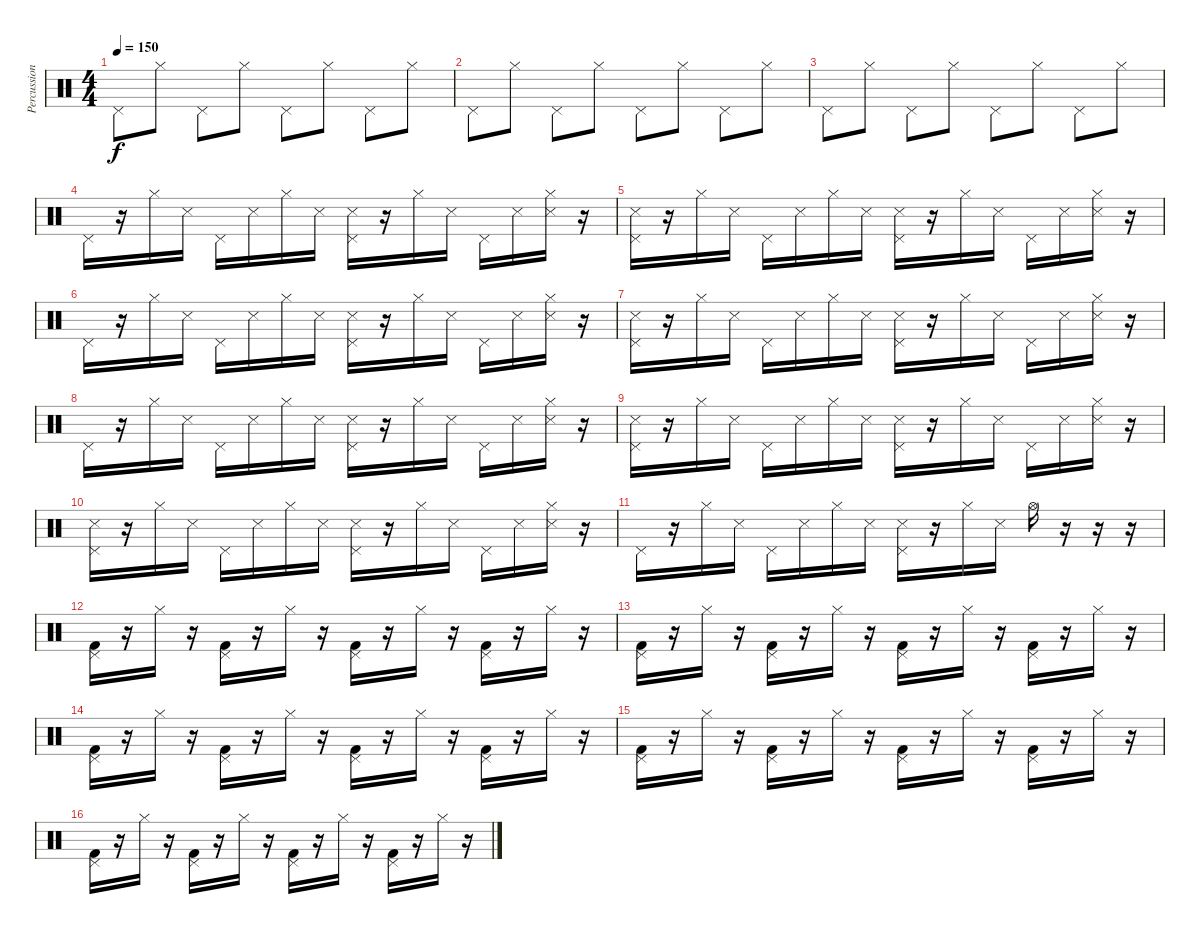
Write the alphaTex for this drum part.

\track ("Percussions" "Percussion") {instrument percussion}
\staff {score}
\articulation defaults
\ts (4 4)
\tempo 150
\clef neutral
\ks c "Pedal Hi-Hat (hit)".8{dy f} "Hi-Hat (closed)".8 "Pedal Hi-Hat (hit)".8 "Hi-Hat (closed)".8 "Pedal Hi-Hat (hit)".8 "Hi-Hat (closed)".8 "Pedal Hi-Hat (hit)".8 "Hi-Hat (closed)".8
|
"Pedal Hi-Hat (hit)".8 "Hi-Hat (closed)".8 "Pedal Hi-Hat (hit)".8 "Hi-Hat (closed)".8 "Pedal Hi-Hat (hit)".8 "Hi-Hat (closed)".8 "Pedal Hi-Hat (hit)".8 "Hi-Hat (closed)".8 |
"Pedal Hi-Hat (hit)".8 "Hi-Hat (closed)".8 "Pedal Hi-Hat (hit)".8 "Hi-Hat (closed)".8 "Pedal Hi-Hat (hit)".8 "Hi-Hat (closed)".8 "Pedal Hi-Hat (hit)".8 "Hi-Hat (closed)".8 |
"Pedal Hi-Hat (hit)".16 r.16 "Hi-Hat (closed)".16 "Snare (side stick) 3".16 "Pedal Hi-Hat (hit)".16 "Snare (side stick) 3".16 "Hi-Hat (closed)".16 "Snare (side stick) 3".16 ("Pedal Hi-Hat (hit)" "Snare (side stick) 3").16 r.16 "Hi-Hat (closed)".16 "Snare (side stick) 3".16 "Pedal Hi-Hat (hit)".16 "Snare (side stick) 3".16 ("Snare (side stick) 3" "Hi-Hat (closed)").16 r.16 |
("Pedal Hi-Hat (hit)" "Snare (side stick) 3").16 r.16 "Hi-Hat (closed)".16 "Snare (side stick) 3".16 "Pedal Hi-Hat (hit)".16 "Snare (side stick) 3".16 "Hi-Hat (closed)".16 "Snare (side stick) 3".16 ("Pedal Hi-Hat (hit)" "Snare (side stick) 3").16 r.16 "Hi-Hat (closed)".16 "Snare (side stick) 3".16 "Pedal Hi-Hat (hit)".16 "Snare (side stick) 3".16 ("Snare (side stick) 3" "Hi-Hat (closed)").16 r.16 |
"Pedal Hi-Hat (hit)".16 r.16 "Hi-Hat (closed)".16 "Snare (side stick) 3".16 "Pedal Hi-Hat (hit)".16 "Snare (side stick) 3".16 "Hi-Hat (closed)".16 "Snare (side stick) 3".16 ("Pedal Hi-Hat (hit)" "Snare (side stick) 3").16 r.16 "Hi-Hat (closed)".16 "Snare (side stick) 3".16 "Pedal Hi-Hat (hit)".16 "Snare (side stick) 3".16 ("Snare (side stick) 3" "Hi-Hat (closed)").16 r.16 |
("Pedal Hi-Hat (hit)" "Snare (side stick) 3").16 r.16 "Hi-Hat (closed)".16 "Snare (side stick) 3".16 "Pedal Hi-Hat (hit)".16 "Snare (side stick) 3".16 "Hi-Hat (closed)".16 "Snare (side stick) 3".16 ("Pedal Hi-Hat (hit)" "Snare (side stick) 3").16 r.16 "Hi-Hat (closed)".16 "Snare (side stick) 3".16 "Pedal Hi-Hat (hit)".16 "Snare (side stick) 3".16 ("Snare (side stick) 3" "Hi-Hat (closed)").16 r.16 |
"Pedal Hi-Hat (hit)".16 r.16 "Hi-Hat (closed)".16 "Snare (side stick) 3".16 "Pedal Hi-Hat (hit)".16 "Snare (side stick) 3".16 "Hi-Hat (closed)".16 "Snare (side stick) 3".16 ("Pedal Hi-Hat (hit)" "Snare (side stick) 3").16 r.16 "Hi-Hat (closed)".16 "Snare (side stick) 3".16 "Pedal Hi-Hat (hit)".16 "Snare (side stick) 3".16 ("Snare (side stick) 3" "Hi-Hat (closed)").16 r.16 |
("Pedal Hi-Hat (hit)" "Snare (side stick) 3").16 r.16 "Hi-Hat (closed)".16 "Snare (side stick) 3".16 "Pedal Hi-Hat (hit)".16 "Snare (side stick) 3".16 "Hi-Hat (closed)".16 "Snare (side stick) 3".16 ("Pedal Hi-Hat (hit)" "Snare (side stick) 3").16 r.16 "Hi-Hat (closed)".16 "Snare (side stick) 3".16 "Pedal Hi-Hat (hit)".16 "Snare (side stick) 3".16 ("Snare (side stick) 3" "Hi-Hat (closed)").16 r.16 |
("Pedal Hi-Hat (hit)" "Snare (side stick) 3").16 r.16 "Hi-Hat (closed)".16 "Snare (side stick) 3".16 "Pedal Hi-Hat (hit)".16 "Snare (side stick) 3".16 "Hi-Hat (closed)".16 "Snare (side stick) 3".16 ("Pedal Hi-Hat (hit)" "Snare (side stick) 3").16 r.16 "Hi-Hat (closed)".16 "Snare (side stick) 3".16 "Pedal Hi-Hat (hit)".16 "Snare (side stick) 3".16 ("Snare (side stick) 3" "Hi-Hat (closed)").16 r.16 |
"Pedal Hi-Hat (hit)".16 r.16 "Hi-Hat (closed)".16 "Snare (side stick) 3".16 "Pedal Hi-Hat (hit)".16 "Snare (side stick) 3".16 "Hi-Hat (closed)".16 "Snare (side stick) 3".16 ("Pedal Hi-Hat (hit)" "Snare (side stick) 3").16 r.16 "Hi-Hat (closed)".16 "Snare (side stick) 3".16 "Hi-Hat (open)".16 r.16 r.16 r.16 |
("Pedal Hi-Hat (hit)" "Kick (hit) 2").16 r.16 "Hi-Hat (closed)".16 r.16 ("Pedal Hi-Hat (hit)" "Kick (hit) 2").16 r.16 "Hi-Hat (closed)".16 r.16 ("Pedal Hi-Hat (hit)" "Kick (hit) 2").16 r.16 "Hi-Hat (closed)".16 r.16 ("Pedal Hi-Hat (hit)" "Kick (hit) 2").16 r.16 "Hi-Hat (closed)".16 r.16 |
("Pedal Hi-Hat (hit)" "Kick (hit) 2").16 r.16 "Hi-Hat (closed)".16 r.16 ("Pedal Hi-Hat (hit)" "Kick (hit) 2").16 r.16 "Hi-Hat (closed)".16 r.16 ("Pedal Hi-Hat (hit)" "Kick (hit) 2").16 r.16 "Hi-Hat (closed)".16 r.16 ("Pedal Hi-Hat (hit)" "Kick (hit) 2").16 r.16 "Hi-Hat (closed)".16 r.16 |
("Pedal Hi-Hat (hit)" "Kick (hit) 2").16 r.16 "Hi-Hat (closed)".16 r.16 ("Pedal Hi-Hat (hit)" "Kick (hit) 2").16 r.16 "Hi-Hat (closed)".16 r.16 ("Pedal Hi-Hat (hit)" "Kick (hit) 2").16 r.16 "Hi-Hat (closed)".16 r.16 ("Pedal Hi-Hat (hit)" "Kick (hit) 2").16 r.16 "Hi-Hat (closed)".16 r.16 |
("Pedal Hi-Hat (hit)" "Kick (hit) 2").16 r.16 "Hi-Hat (closed)".16 r.16 ("Pedal Hi-Hat (hit)" "Kick (hit) 2").16 r.16 "Hi-Hat (closed)".16 r.16 ("Pedal Hi-Hat (hit)" "Kick (hit) 2").16 r.16 "Hi-Hat (closed)".16 r.16 ("Pedal Hi-Hat (hit)" "Kick (hit) 2").16 r.16 "Hi-Hat (closed)".16 r.16 |
("Pedal Hi-Hat (hit)" "Kick (hit) 2").16 r.16 "Hi-Hat (closed)".16 r.16 ("Pedal Hi-Hat (hit)" "Kick (hit) 2").16 r.16 "Hi-Hat (closed)".16 r.16 ("Pedal Hi-Hat (hit)" "Kick (hit) 2").16 r.16 "Hi-Hat (closed)".16 r.16 ("Pedal Hi-Hat (hit)" "Kick (hit) 2").16 r.16 "Hi-Hat (closed)".16 r.16
